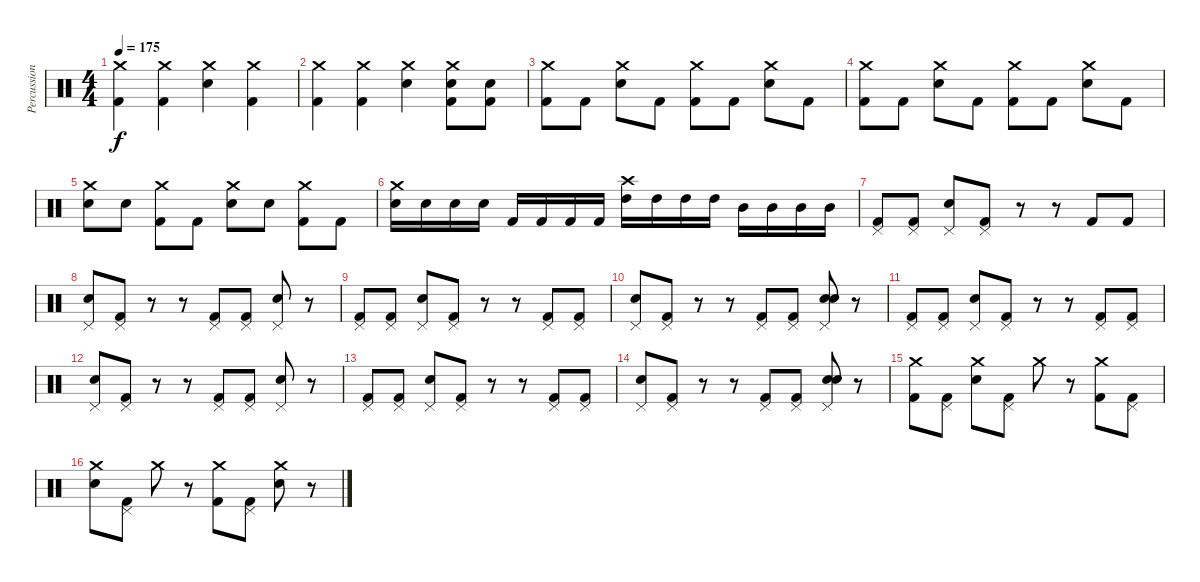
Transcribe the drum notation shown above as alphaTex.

\track ("Percussions" "Percussion") {instrument percussion}
\staff {score}
\articulation defaults
\ts (4 4)
\tempo 175
\clef neutral
\ks c
("Crash medium (hit)" "Kick (hit) 2").4{dy f} ("Crash medium (hit)" "Kick (hit) 2").4 ("Crash medium (hit)" "Snare (hit) 2").4 ("Crash medium (hit)" "Kick (hit) 2").4 |
("Crash medium (hit)" "Kick (hit) 2").4 ("Crash medium (hit)" "Kick (hit) 2").4 ("Crash medium (hit)" "Snare (hit) 2").4 ("Crash medium (hit)" "Snare (hit) 2" "Kick (hit) 2").8 ("Snare (hit) 2" "Kick (hit) 2").8 |
("Crash medium (hit)" "Kick (hit) 2").8 "Kick (hit) 2".8 ("Crash medium (hit)" "Snare (hit) 2").8 "Kick (hit) 2".8 ("Crash medium (hit)" "Kick (hit) 2").8 "Kick (hit) 2".8 ("Crash medium (hit)" "Snare (hit) 2").8 "Kick (hit) 2".8 |
("Crash medium (hit)" "Kick (hit) 2").8 "Kick (hit) 2".8 ("Crash medium (hit)" "Snare (hit) 2").8 "Kick (hit) 2".8 ("Crash medium (hit)" "Kick (hit) 2").8 "Kick (hit) 2".8 ("Crash medium (hit)" "Snare (hit) 2").8 "Kick (hit) 2".8 |
("Crash medium (hit)" "Snare (hit) 2").8 "Snare (hit) 2".8 ("Crash medium (hit)" "Kick (hit) 2").8 "Kick (hit) 2".8 ("Crash medium (hit)" "Snare (hit) 2").8 "Snare (hit) 2".8 ("Crash medium (hit)" "Kick (hit) 2").8 "Kick (hit) 2".8 |
("Crash medium (hit)" "Snare (hit) 2").16 "Snare (hit) 2".16 "Snare (hit) 2".16 "Snare (hit) 2".16 "Kick (hit) 2".16 "Kick (hit) 2".16 "Kick (hit) 2".16 "Kick (hit) 2".16 ("Crash high (hit)" "High Tom (hit)").16 "High Tom (hit)".16 "High Tom (hit)".16 "High Tom (hit)".16 "Mid Tom (hit)".16 "Mid Tom (hit)".16 "Mid Tom (hit)".16 "Mid Tom (hit)".16 |
("Pedal Hi-Hat (hit)" "Kick (hit) 2").8 ("Pedal Hi-Hat (hit)" "Kick (hit) 2").8 ("Pedal Hi-Hat (hit)" "Snare (hit) 2").8 ("Pedal Hi-Hat (hit)" "Kick (hit) 2").8 r.8 r.8 "Kick (hit) 2".8 "Kick (hit) 2".8 |
("Pedal Hi-Hat (hit)" "Snare (hit) 2").8 ("Pedal Hi-Hat (hit)" "Kick (hit) 2").8 r.8 r.8 ("Pedal Hi-Hat (hit)" "Kick (hit) 2").8 ("Pedal Hi-Hat (hit)" "Kick (hit) 2").8 ("Pedal Hi-Hat (hit)" "Snare (hit) 2").8 r.8 |
("Pedal Hi-Hat (hit)" "Kick (hit) 2").8 ("Pedal Hi-Hat (hit)" "Kick (hit) 2").8 ("Pedal Hi-Hat (hit)" "Snare (hit) 2").8 ("Pedal Hi-Hat (hit)" "Kick (hit) 2").8 r.8 r.8 ("Pedal Hi-Hat (hit)" "Kick (hit) 2").8 ("Pedal Hi-Hat (hit)" "Kick (hit) 2").8 |
("Pedal Hi-Hat (hit)" "Snare (hit) 2").8 ("Pedal Hi-Hat (hit)" "Kick (hit) 2").8 r.8 r.8 ("Pedal Hi-Hat (hit)" "Kick (hit) 2").8 ("Pedal Hi-Hat (hit)" "Kick (hit) 2").8 ("Pedal Hi-Hat (hit)" "Snare (hit) 2" "Snare (hit) 2").8 r.8 |
("Pedal Hi-Hat (hit)" "Kick (hit) 2").8 ("Pedal Hi-Hat (hit)" "Kick (hit) 2").8 ("Pedal Hi-Hat (hit)" "Snare (hit) 2").8 ("Pedal Hi-Hat (hit)" "Kick (hit) 2").8 r.8 r.8 ("Pedal Hi-Hat (hit)" "Kick (hit) 2").8 ("Pedal Hi-Hat (hit)" "Kick (hit) 2").8 |
("Pedal Hi-Hat (hit)" "Snare (hit) 2").8 ("Pedal Hi-Hat (hit)" "Kick (hit) 2").8 r.8 r.8 ("Pedal Hi-Hat (hit)" "Kick (hit) 2").8 ("Pedal Hi-Hat (hit)" "Kick (hit) 2").8 ("Pedal Hi-Hat (hit)" "Snare (hit) 2").8 r.8 |
("Pedal Hi-Hat (hit)" "Kick (hit) 2").8 ("Pedal Hi-Hat (hit)" "Kick (hit) 2").8 ("Pedal Hi-Hat (hit)" "Snare (hit) 2").8 ("Pedal Hi-Hat (hit)" "Kick (hit) 2").8 r.8 r.8 ("Pedal Hi-Hat (hit)" "Kick (hit) 2").8 ("Pedal Hi-Hat (hit)" "Kick (hit) 2").8 |
("Pedal Hi-Hat (hit)" "Snare (hit) 2").8 ("Pedal Hi-Hat (hit)" "Kick (hit) 2").8 r.8 r.8 ("Pedal Hi-Hat (hit)" "Kick (hit) 2").8 ("Pedal Hi-Hat (hit)" "Kick (hit) 2").8 ("Pedal Hi-Hat (hit)" "Snare (hit) 2" "Snare (hit) 2").8 r.8 |
("Crash medium (hit)" "Kick (hit) 2").8 ("Pedal Hi-Hat (hit)" "Kick (hit) 2").8 ("Crash medium (hit)" "Snare (hit) 2").8 ("Pedal Hi-Hat (hit)" "Kick (hit) 2").8 "Crash medium (hit)".8 r.8 ("Crash medium (hit)" "Kick (hit) 2").8 ("Pedal Hi-Hat (hit)" "Kick (hit) 2").8 |
("Crash medium (hit)" "Snare (hit) 2").8 ("Pedal Hi-Hat (hit)" "Kick (hit) 2").8 "Crash medium (hit)".8 r.8 ("Crash medium (hit)" "Kick (hit) 2").8 ("Pedal Hi-Hat (hit)" "Kick (hit) 2").8 ("Crash medium (hit)" "Snare (hit) 2").8 r.8
